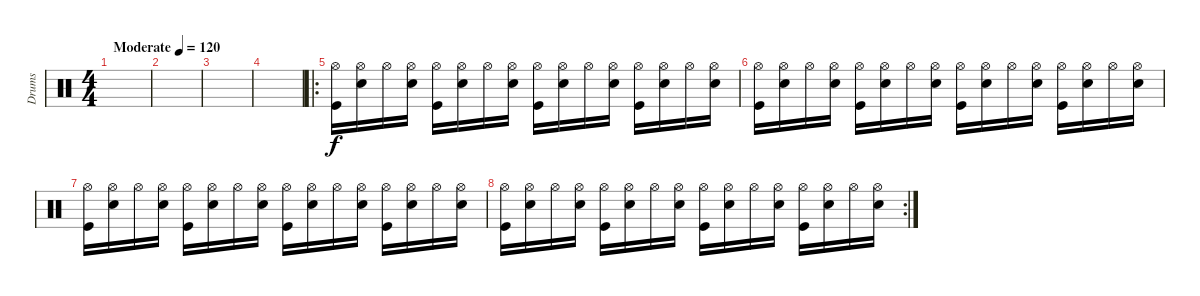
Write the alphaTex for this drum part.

\track ("Drums" "Drums") {instrument percussion}
\staff {score}
\articulation defaults
\ts (4 4)
\tempo (120 "Moderate")
\clef neutral
\ks c
|
|
|
|
\ro
("Hi-Hat (open)" "Kick (hit)").16 ("Hi-Hat (open)" "Snare (hit) 2").16 "Hi-Hat (open)".16 ("Hi-Hat (open)" "Snare (hit) 2").16 ("Hi-Hat (open)" "Kick (hit)").16 ("Hi-Hat (open)" "Snare (hit) 2").16 "Hi-Hat (open)".16 ("Hi-Hat (open)" "Snare (hit) 2").16 ("Hi-Hat (open)" "Kick (hit)").16 ("Hi-Hat (open)" "Snare (hit) 2").16 "Hi-Hat (open)".16 ("Hi-Hat (open)" "Snare (hit) 2").16 ("Hi-Hat (open)" "Kick (hit)").16 ("Hi-Hat (open)" "Snare (hit) 2").16 "Hi-Hat (open)".16 ("Hi-Hat (open)" "Snare (hit) 2").16 |
("Hi-Hat (open)" "Kick (hit)").16 ("Hi-Hat (open)" "Snare (hit) 2").16 "Hi-Hat (open)".16 ("Hi-Hat (open)" "Snare (hit) 2").16 ("Hi-Hat (open)" "Kick (hit)").16 ("Hi-Hat (open)" "Snare (hit) 2").16 "Hi-Hat (open)".16 ("Hi-Hat (open)" "Snare (hit) 2").16 ("Hi-Hat (open)" "Kick (hit)").16 ("Hi-Hat (open)" "Snare (hit) 2").16 "Hi-Hat (open)".16 ("Hi-Hat (open)" "Snare (hit) 2").16 ("Hi-Hat (open)" "Kick (hit)").16 ("Hi-Hat (open)" "Snare (hit) 2").16 "Hi-Hat (open)".16 ("Hi-Hat (open)" "Snare (hit) 2").16 |
("Hi-Hat (open)" "Kick (hit)").16 ("Hi-Hat (open)" "Snare (hit) 2").16 "Hi-Hat (open)".16 ("Hi-Hat (open)" "Snare (hit) 2").16 ("Hi-Hat (open)" "Kick (hit)").16 ("Hi-Hat (open)" "Snare (hit) 2").16 "Hi-Hat (open)".16 ("Hi-Hat (open)" "Snare (hit) 2").16 ("Hi-Hat (open)" "Kick (hit)").16 ("Hi-Hat (open)" "Snare (hit) 2").16 "Hi-Hat (open)".16 ("Hi-Hat (open)" "Snare (hit) 2").16 ("Hi-Hat (open)" "Kick (hit)").16 ("Hi-Hat (open)" "Snare (hit) 2").16 "Hi-Hat (open)".16 ("Hi-Hat (open)" "Snare (hit) 2").16 |
\rc 2
("Hi-Hat (open)" "Kick (hit)").16 ("Hi-Hat (open)" "Snare (hit) 2").16 "Hi-Hat (open)".16 ("Hi-Hat (open)" "Snare (hit) 2").16 ("Hi-Hat (open)" "Kick (hit)").16 ("Hi-Hat (open)" "Snare (hit) 2").16 "Hi-Hat (open)".16 ("Hi-Hat (open)" "Snare (hit) 2").16 ("Hi-Hat (open)" "Kick (hit)").16 ("Hi-Hat (open)" "Snare (hit) 2").16 "Hi-Hat (open)".16 ("Hi-Hat (open)" "Snare (hit) 2").16 ("Hi-Hat (open)" "Kick (hit)").16 ("Hi-Hat (open)" "Snare (hit) 2").16 "Hi-Hat (open)".16 ("Hi-Hat (open)" "Snare (hit) 2").16
